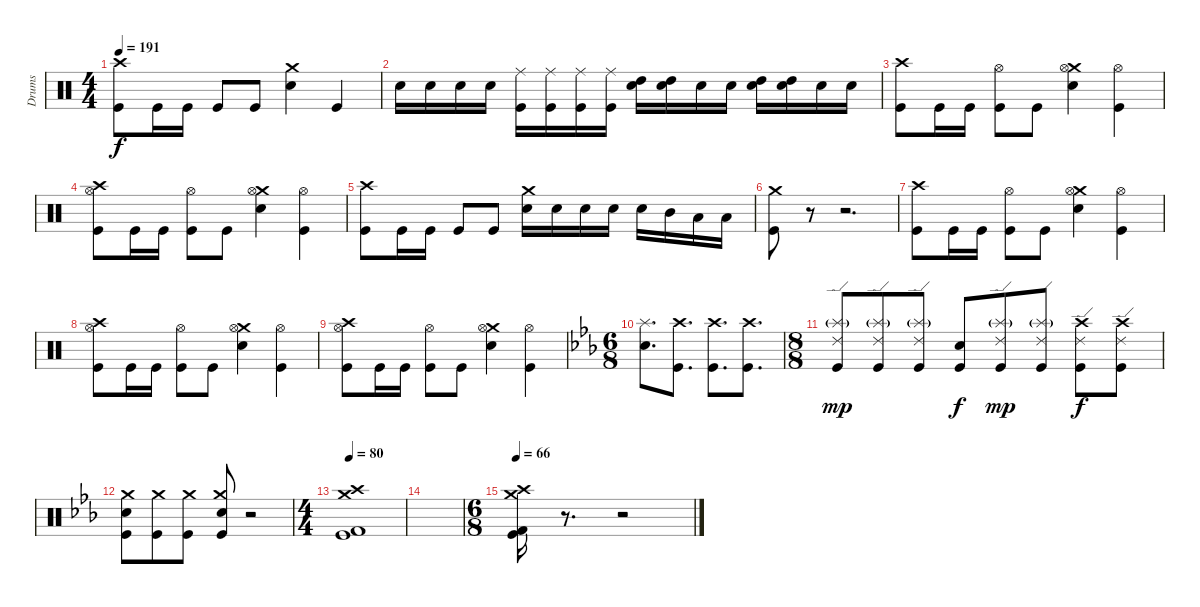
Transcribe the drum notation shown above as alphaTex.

\track ("Drums" "Drums") {instrument percussion}
\staff {score}
\articulation defaults
\ts (4 4)
\tempo 191
\clef neutral
\ks c
("Crash high (hit)" "Kick (hit)").8{dy f} "Kick (hit)".16 "Kick (hit)".16 "Kick (hit)".8 "Kick (hit)".8 ("Crash medium (hit)" "Electric Snare (hit)").4 "Kick (hit)".4 |
"Electric Snare (hit)".16 "Electric Snare (hit)".16 "Electric Snare (hit)".16 "Electric Snare (hit)".16 ("Ride (middle)" "Kick (hit)").16 ("Ride (middle)" "Kick (hit)").16 ("Ride (middle)" "Kick (hit)").16 ("Ride (middle)" "Kick (hit)").16 ("High Tom (hit)" "Electric Snare (hit)").16 ("High Tom (hit)" "Electric Snare (hit)").16 "Electric Snare (hit)".16 "Electric Snare (hit)".16 ("High Tom (hit)" "Electric Snare (hit)").16 ("High Tom (hit)" "Electric Snare (hit)").16 "Electric Snare (hit)".16 "Electric Snare (hit)".16 |
("Crash high (hit)" "Kick (hit)").8 "Kick (hit)".16 "Kick (hit)".16 ("Hi-Hat (open)" "Kick (hit)").8 "Kick (hit)".8 ("Crash medium (hit)" "Hi-Hat (open)" "Electric Snare (hit)").4 ("Hi-Hat (open)" "Kick (hit)").4 |
("Crash high (hit)" "Hi-Hat (open)" "Kick (hit)").8 "Kick (hit)".16 "Kick (hit)".16 ("Hi-Hat (open)" "Kick (hit)").8 "Kick (hit)".8 ("Crash medium (hit)" "Hi-Hat (open)" "Electric Snare (hit)").4 ("Hi-Hat (open)" "Kick (hit)").4 |
("Crash high (hit)" "Kick (hit)").8 "Kick (hit)".16 "Kick (hit)".16 "Kick (hit)".8 "Kick (hit)".8 ("Crash medium (hit)" "Electric Snare (hit)").16 "Electric Snare (hit)".16 "Electric Snare (hit)".16 "Electric Snare (hit)".16 "Electric Snare (hit)".16 "Mid Tom (hit)".16 "Low Tom (hit)".16 "Low Tom (hit)".16 |
("Crash medium (hit)" "Kick (hit)").8 r.8 r.2{d} |
("Crash high (hit)" "Kick (hit)").8 "Kick (hit)".16 "Kick (hit)".16 ("Hi-Hat (open)" "Kick (hit)").8 "Kick (hit)".8 ("Crash medium (hit)" "Hi-Hat (open)" "Electric Snare (hit)").4 ("Hi-Hat (open)" "Kick (hit)").4 |
("Crash high (hit)" "Hi-Hat (open)" "Kick (hit)").8 "Kick (hit)".16 "Kick (hit)".16 ("Hi-Hat (open)" "Kick (hit)").8 "Kick (hit)".8 ("Crash medium (hit)" "Hi-Hat (open)" "Electric Snare (hit)").4 ("Hi-Hat (open)" "Kick (hit)").4 |
("Crash high (hit)" "Hi-Hat (open)" "Kick (hit)").8 "Kick (hit)".16 "Kick (hit)".16 ("Hi-Hat (open)" "Kick (hit)").8 "Kick (hit)".8 ("Crash medium (hit)" "Hi-Hat (open)" "Electric Snare (hit)").4 ("Hi-Hat (open)" "Kick (hit)").4 |
\ts (6 8)
\ks cminor
("Splash (hit)" "Electric Snare (hit)").8{d} ("Crash high (hit)" "Kick (hit)").8{d} ("Crash high (hit)" "Kick (hit)").8{d} ("Crash high (hit)" "Kick (hit)").8{d} |
\ts (8 8)
("Ride (edge) 2" "Splash (hit)"{g} "Kick (hit)").8{dy mp} ("Ride (edge) 2" "Splash (hit)"{g} "Kick (hit)").8 ("Ride (edge) 2" "Splash (hit)"{g} "Kick (hit)").8 ("Electric Snare (hit)" "Kick (hit)").8{dy f} ("Ride (edge) 2" "Splash (hit)"{g} "Kick (hit)").8{dy mp} ("Ride (edge) 2" "Splash (hit)"{g} "Kick (hit)").8 ("Crash high (hit)" "Ride (edge) 2" "Kick (hit)").8{dy f} ("Crash high (hit)" "Ride (edge) 2" "Kick (hit)").8 |
("Crash medium (hit)" "Electric Snare (hit)" "Kick (hit)").8 ("Crash medium (hit)" "Kick (hit)").8 ("Crash medium (hit)" "Kick (hit)").8 ("Crash medium (hit)" "Electric Snare (hit)" "Kick (hit)").8 r.2 |
\ts (4 4)
\tempo 80
("Crash medium (hit)" "Crash high (hit)" "Kick (hit) 2" "Kick (hit)").1 |
|
\ts (6 8)
\tempo 66
("Crash medium (hit)" "Crash high (hit)" "Kick (hit) 2" "Kick (hit)").16 r.8{d} r.2
